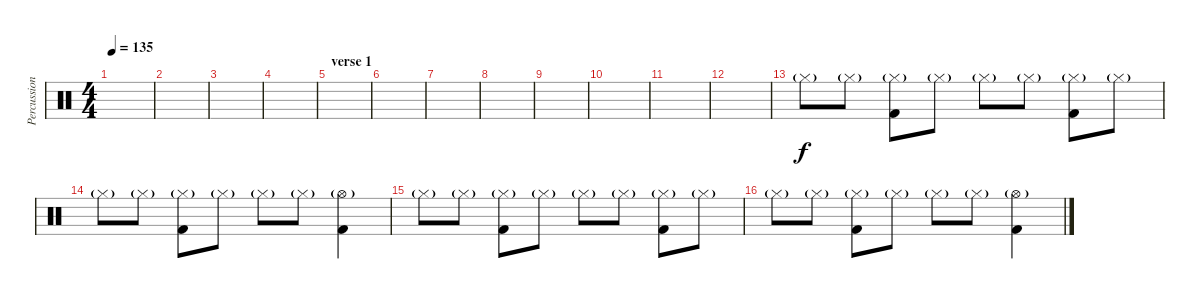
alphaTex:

\track ("Percussion" "Percussion") {instrument percussion}
\staff {score}
\articulation defaults
\ts (4 4)
\tempo 135
\clef neutral
\ks c
|
|
|
|
\section ("" "verse 1")
|
|
|
|
|
|
|
|
"Hi-Hat (closed)"{g}.8 "Hi-Hat (closed)"{g}.8 ("Hi-Hat (closed)"{g} "Kick (hit) 2").8 "Hi-Hat (closed)"{g}.8 "Hi-Hat (closed)"{g}.8 "Hi-Hat (closed)"{g}.8 ("Hi-Hat (closed)"{g} "Kick (hit) 2").8 "Hi-Hat (closed)"{g}.8 |
"Hi-Hat (closed)"{g}.8 "Hi-Hat (closed)"{g}.8 ("Hi-Hat (closed)"{g} "Kick (hit) 2").8 "Hi-Hat (closed)"{g}.8 "Hi-Hat (closed)"{g}.8 "Hi-Hat (closed)"{g}.8 ("Hi-Hat (open)"{g} "Kick (hit) 2").4 |
"Hi-Hat (closed)"{g}.8 "Hi-Hat (closed)"{g}.8 ("Hi-Hat (closed)"{g} "Kick (hit) 2").8 "Hi-Hat (closed)"{g}.8 "Hi-Hat (closed)"{g}.8 "Hi-Hat (closed)"{g}.8 ("Hi-Hat (closed)"{g} "Kick (hit) 2").8 "Hi-Hat (closed)"{g}.8 |
"Hi-Hat (closed)"{g}.8 "Hi-Hat (closed)"{g}.8 ("Hi-Hat (closed)"{g} "Kick (hit) 2").8 "Hi-Hat (closed)"{g}.8 "Hi-Hat (closed)"{g}.8 "Hi-Hat (closed)"{g}.8 ("Hi-Hat (open)"{g} "Kick (hit) 2").4
